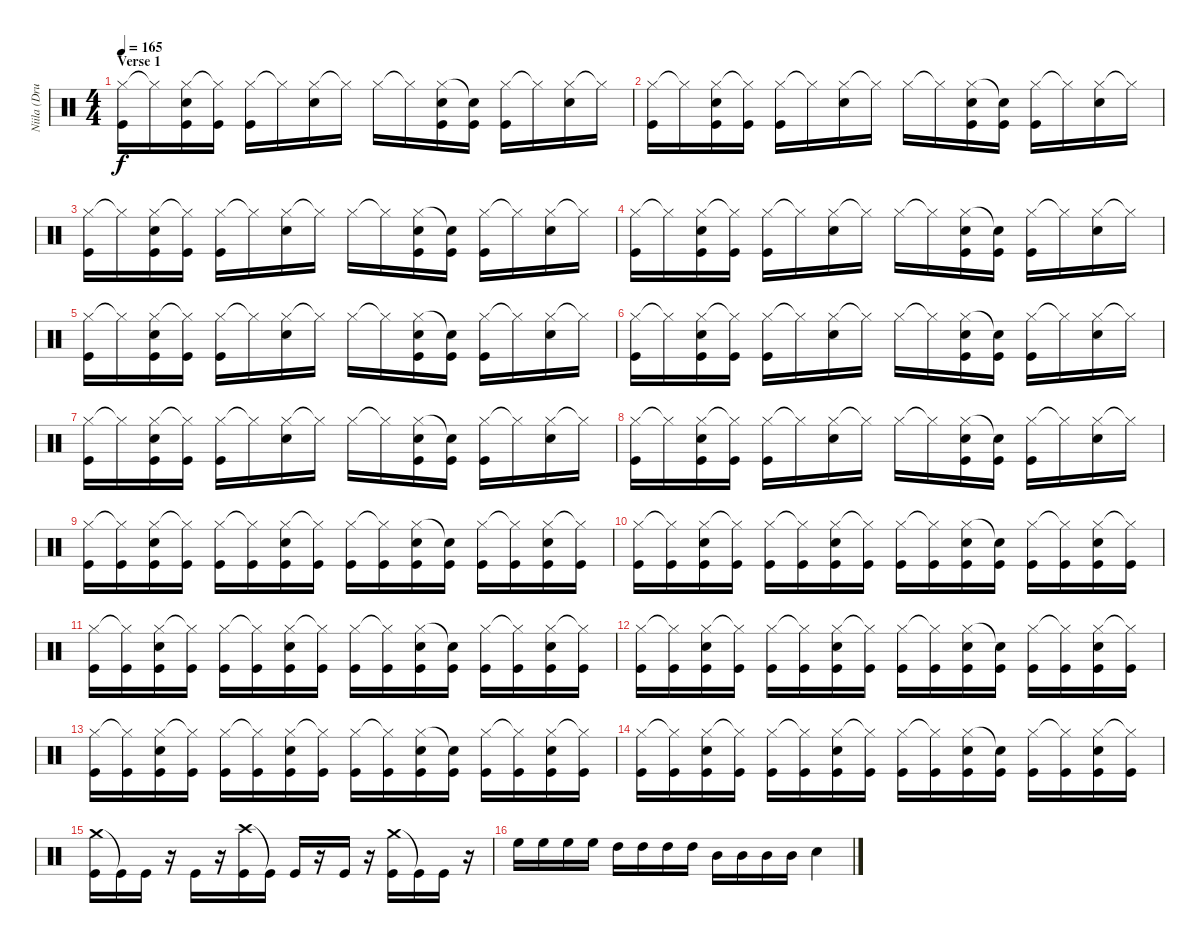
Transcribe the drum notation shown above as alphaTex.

\track ("Niila (Drums)" "Niila (Dru") {instrument percussion}
\staff {score}
\articulation defaults
\ts (4 4)
\section ("" "Verse 1")
\tempo 165
\clef neutral
\ks c
("Hi-Hat (closed)" "Kick (hit)").16{dy f} "Hi-Hat (closed)"{t}.16 ("Hi-Hat (closed)" "Snare (hit) 2" "Kick (hit)").16 ("Hi-Hat (closed)"{t} "Kick (hit)").16 ("Hi-Hat (closed)" "Kick (hit)").16 "Hi-Hat (closed)"{t}.16 ("Hi-Hat (closed)" "Snare (hit) 2").16 "Hi-Hat (closed)"{t}.16 "Hi-Hat (closed)".16 "Hi-Hat (closed)"{t}.16 ("Hi-Hat (closed)" "Snare (hit) 2" "Kick (hit)").16 ("Snare (hit)"{t} "Kick (hit)").16 ("Hi-Hat (closed)" "Kick (hit)").16 "Hi-Hat (closed)"{t}.16 ("Hi-Hat (closed)" "Snare (hit) 2").16 "Hi-Hat (closed)"{t}.16 |
("Hi-Hat (closed)" "Kick (hit)").16 "Hi-Hat (closed)"{t}.16 ("Hi-Hat (closed)" "Snare (hit) 2" "Kick (hit)").16 ("Hi-Hat (closed)"{t} "Kick (hit)").16 ("Hi-Hat (closed)" "Kick (hit)").16 "Hi-Hat (closed)"{t}.16 ("Hi-Hat (closed)" "Snare (hit) 2").16 "Hi-Hat (closed)"{t}.16 "Hi-Hat (closed)".16 "Hi-Hat (closed)"{t}.16 ("Hi-Hat (closed)" "Snare (hit) 2" "Kick (hit)").16 ("Snare (hit)"{t} "Kick (hit)").16 ("Hi-Hat (closed)" "Kick (hit)").16 "Hi-Hat (closed)"{t}.16 ("Hi-Hat (closed)" "Snare (hit) 2").16 "Hi-Hat (closed)"{t}.16 |
("Hi-Hat (closed)" "Kick (hit)").16 "Hi-Hat (closed)"{t}.16 ("Hi-Hat (closed)" "Snare (hit) 2" "Kick (hit)").16 ("Hi-Hat (closed)"{t} "Kick (hit)").16 ("Hi-Hat (closed)" "Kick (hit)").16 "Hi-Hat (closed)"{t}.16 ("Hi-Hat (closed)" "Snare (hit) 2").16 "Hi-Hat (closed)"{t}.16 "Hi-Hat (closed)".16 "Hi-Hat (closed)"{t}.16 ("Hi-Hat (closed)" "Snare (hit) 2" "Kick (hit)").16 ("Snare (hit)"{t} "Kick (hit)").16 ("Hi-Hat (closed)" "Kick (hit)").16 "Hi-Hat (closed)"{t}.16 ("Hi-Hat (closed)" "Snare (hit) 2").16 "Hi-Hat (closed)"{t}.16 |
("Hi-Hat (closed)" "Kick (hit)").16 "Hi-Hat (closed)"{t}.16 ("Hi-Hat (closed)" "Snare (hit) 2" "Kick (hit)").16 ("Hi-Hat (closed)"{t} "Kick (hit)").16 ("Hi-Hat (closed)" "Kick (hit)").16 "Hi-Hat (closed)"{t}.16 ("Hi-Hat (closed)" "Snare (hit) 2").16 "Hi-Hat (closed)"{t}.16 "Hi-Hat (closed)".16 "Hi-Hat (closed)"{t}.16 ("Hi-Hat (closed)" "Snare (hit) 2" "Kick (hit)").16 ("Snare (hit)"{t} "Kick (hit)").16 ("Hi-Hat (closed)" "Kick (hit)").16 "Hi-Hat (closed)"{t}.16 ("Hi-Hat (closed)" "Snare (hit) 2").16 "Hi-Hat (closed)"{t}.16 |
("Hi-Hat (closed)" "Kick (hit)").16 "Hi-Hat (closed)"{t}.16 ("Hi-Hat (closed)" "Snare (hit) 2" "Kick (hit)").16 ("Hi-Hat (closed)"{t} "Kick (hit)").16 ("Hi-Hat (closed)" "Kick (hit)").16 "Hi-Hat (closed)"{t}.16 ("Hi-Hat (closed)" "Snare (hit) 2").16 "Hi-Hat (closed)"{t}.16 "Hi-Hat (closed)".16 "Hi-Hat (closed)"{t}.16 ("Hi-Hat (closed)" "Snare (hit) 2" "Kick (hit)").16 ("Snare (hit)"{t} "Kick (hit)").16 ("Hi-Hat (closed)" "Kick (hit)").16 "Hi-Hat (closed)"{t}.16 ("Hi-Hat (closed)" "Snare (hit) 2").16 "Hi-Hat (closed)"{t}.16 |
("Hi-Hat (closed)" "Kick (hit)").16 "Hi-Hat (closed)"{t}.16 ("Hi-Hat (closed)" "Snare (hit) 2" "Kick (hit)").16 ("Hi-Hat (closed)"{t} "Kick (hit)").16 ("Hi-Hat (closed)" "Kick (hit)").16 "Hi-Hat (closed)"{t}.16 ("Hi-Hat (closed)" "Snare (hit) 2").16 "Hi-Hat (closed)"{t}.16 "Hi-Hat (closed)".16 "Hi-Hat (closed)"{t}.16 ("Hi-Hat (closed)" "Snare (hit) 2" "Kick (hit)").16 ("Snare (hit)"{t} "Kick (hit)").16 ("Hi-Hat (closed)" "Kick (hit)").16 "Hi-Hat (closed)"{t}.16 ("Hi-Hat (closed)" "Snare (hit) 2").16 "Hi-Hat (closed)"{t}.16 |
("Hi-Hat (closed)" "Kick (hit)").16 "Hi-Hat (closed)"{t}.16 ("Hi-Hat (closed)" "Snare (hit) 2" "Kick (hit)").16 ("Hi-Hat (closed)"{t} "Kick (hit)").16 ("Hi-Hat (closed)" "Kick (hit)").16 "Hi-Hat (closed)"{t}.16 ("Hi-Hat (closed)" "Snare (hit) 2").16 "Hi-Hat (closed)"{t}.16 "Hi-Hat (closed)".16 "Hi-Hat (closed)"{t}.16 ("Hi-Hat (closed)" "Snare (hit) 2" "Kick (hit)").16 ("Snare (hit)"{t} "Kick (hit)").16 ("Hi-Hat (closed)" "Kick (hit)").16 "Hi-Hat (closed)"{t}.16 ("Hi-Hat (closed)" "Snare (hit) 2").16 "Hi-Hat (closed)"{t}.16 |
("Hi-Hat (closed)" "Kick (hit)").16 "Hi-Hat (closed)"{t}.16 ("Hi-Hat (closed)" "Snare (hit) 2" "Kick (hit)").16 ("Hi-Hat (closed)"{t} "Kick (hit)").16 ("Hi-Hat (closed)" "Kick (hit)").16 "Hi-Hat (closed)"{t}.16 ("Hi-Hat (closed)" "Snare (hit) 2").16 "Hi-Hat (closed)"{t}.16 "Hi-Hat (closed)".16 "Hi-Hat (closed)"{t}.16 ("Hi-Hat (closed)" "Snare (hit) 2" "Kick (hit)").16 ("Snare (hit)"{t} "Kick (hit)").16 ("Hi-Hat (closed)" "Kick (hit)").16 "Hi-Hat (closed)"{t}.16 ("Hi-Hat (closed)" "Snare (hit) 2").16 "Hi-Hat (closed)"{t}.16 |
("Hi-Hat (closed)" "Kick (hit)").16 ("Hi-Hat (closed)"{t} "Kick (hit)").16 ("Hi-Hat (closed)" "Snare (hit) 2" "Kick (hit)").16 ("Hi-Hat (closed)"{t} "Kick (hit)").16 ("Hi-Hat (closed)" "Kick (hit)").16 ("Hi-Hat (closed)"{t} "Kick (hit)").16 ("Hi-Hat (closed)" "Snare (hit) 2" "Kick (hit)").16 ("Hi-Hat (closed)"{t} "Kick (hit)").16 ("Hi-Hat (closed)" "Kick (hit)").16 ("Hi-Hat (closed)"{t} "Kick (hit)").16 ("Hi-Hat (closed)" "Snare (hit) 2" "Kick (hit)").16 ("Snare (hit)"{t} "Kick (hit)").16 ("Hi-Hat (closed)" "Kick (hit)").16 ("Hi-Hat (closed)"{t} "Kick (hit)").16 ("Hi-Hat (closed)" "Snare (hit) 2" "Kick (hit)").16 ("Hi-Hat (closed)"{t} "Kick (hit)").16 |
("Hi-Hat (closed)" "Kick (hit)").16 ("Hi-Hat (closed)"{t} "Kick (hit)").16 ("Hi-Hat (closed)" "Snare (hit) 2" "Kick (hit)").16 ("Hi-Hat (closed)"{t} "Kick (hit)").16 ("Hi-Hat (closed)" "Kick (hit)").16 ("Hi-Hat (closed)"{t} "Kick (hit)").16 ("Hi-Hat (closed)" "Snare (hit) 2" "Kick (hit)").16 ("Hi-Hat (closed)"{t} "Kick (hit)").16 ("Hi-Hat (closed)" "Kick (hit)").16 ("Hi-Hat (closed)"{t} "Kick (hit)").16 ("Hi-Hat (closed)" "Snare (hit) 2" "Kick (hit)").16 ("Snare (hit)"{t} "Kick (hit)").16 ("Hi-Hat (closed)" "Kick (hit)").16 ("Hi-Hat (closed)"{t} "Kick (hit)").16 ("Hi-Hat (closed)" "Snare (hit) 2" "Kick (hit)").16 ("Hi-Hat (closed)"{t} "Kick (hit)").16 |
("Hi-Hat (closed)" "Kick (hit)").16 ("Hi-Hat (closed)"{t} "Kick (hit)").16 ("Hi-Hat (closed)" "Snare (hit) 2" "Kick (hit)").16 ("Hi-Hat (closed)"{t} "Kick (hit)").16 ("Hi-Hat (closed)" "Kick (hit)").16 ("Hi-Hat (closed)"{t} "Kick (hit)").16 ("Hi-Hat (closed)" "Snare (hit) 2" "Kick (hit)").16 ("Hi-Hat (closed)"{t} "Kick (hit)").16 ("Hi-Hat (closed)" "Kick (hit)").16 ("Hi-Hat (closed)"{t} "Kick (hit)").16 ("Hi-Hat (closed)" "Snare (hit) 2" "Kick (hit)").16 ("Snare (hit)"{t} "Kick (hit)").16 ("Hi-Hat (closed)" "Kick (hit)").16 ("Hi-Hat (closed)"{t} "Kick (hit)").16 ("Hi-Hat (closed)" "Snare (hit) 2" "Kick (hit)").16 ("Hi-Hat (closed)"{t} "Kick (hit)").16 |
("Hi-Hat (closed)" "Kick (hit)").16 ("Hi-Hat (closed)"{t} "Kick (hit)").16 ("Hi-Hat (closed)" "Snare (hit) 2" "Kick (hit)").16 ("Hi-Hat (closed)"{t} "Kick (hit)").16 ("Hi-Hat (closed)" "Kick (hit)").16 ("Hi-Hat (closed)"{t} "Kick (hit)").16 ("Hi-Hat (closed)" "Snare (hit) 2" "Kick (hit)").16 ("Hi-Hat (closed)"{t} "Kick (hit)").16 ("Hi-Hat (closed)" "Kick (hit)").16 ("Hi-Hat (closed)"{t} "Kick (hit)").16 ("Hi-Hat (closed)" "Snare (hit) 2" "Kick (hit)").16 ("Snare (hit)"{t} "Kick (hit)").16 ("Hi-Hat (closed)" "Kick (hit)").16 ("Hi-Hat (closed)"{t} "Kick (hit)").16 ("Hi-Hat (closed)" "Snare (hit) 2" "Kick (hit)").16 ("Hi-Hat (closed)"{t} "Kick (hit)").16 |
("Hi-Hat (closed)" "Kick (hit)").16 ("Hi-Hat (closed)"{t} "Kick (hit)").16 ("Hi-Hat (closed)" "Snare (hit) 2" "Kick (hit)").16 ("Hi-Hat (closed)"{t} "Kick (hit)").16 ("Hi-Hat (closed)" "Kick (hit)").16 ("Hi-Hat (closed)"{t} "Kick (hit)").16 ("Hi-Hat (closed)" "Snare (hit) 2" "Kick (hit)").16 ("Hi-Hat (closed)"{t} "Kick (hit)").16 ("Hi-Hat (closed)" "Kick (hit)").16 ("Hi-Hat (closed)"{t} "Kick (hit)").16 ("Hi-Hat (closed)" "Snare (hit) 2" "Kick (hit)").16 ("Snare (hit)"{t} "Kick (hit)").16 ("Hi-Hat (closed)" "Kick (hit)").16 ("Hi-Hat (closed)"{t} "Kick (hit)").16 ("Hi-Hat (closed)" "Snare (hit) 2" "Kick (hit)").16 ("Hi-Hat (closed)"{t} "Kick (hit)").16 |
("Hi-Hat (closed)" "Kick (hit)").16 ("Hi-Hat (closed)"{t} "Kick (hit)").16 ("Hi-Hat (closed)" "Snare (hit) 2" "Kick (hit)").16 ("Hi-Hat (closed)"{t} "Kick (hit)").16 ("Hi-Hat (closed)" "Kick (hit)").16 ("Hi-Hat (closed)"{t} "Kick (hit)").16 ("Hi-Hat (closed)" "Snare (hit) 2" "Kick (hit)").16 ("Hi-Hat (closed)"{t} "Kick (hit)").16 ("Hi-Hat (closed)" "Kick (hit)").16 ("Hi-Hat (closed)"{t} "Kick (hit)").16 ("Hi-Hat (closed)" "Snare (hit) 2" "Kick (hit)").16 ("Snare (hit)"{t} "Kick (hit)").16 ("Hi-Hat (closed)" "Kick (hit)").16 ("Hi-Hat (closed)"{t} "Kick (hit)").16 ("Hi-Hat (closed)" "Snare (hit) 2" "Kick (hit)").16 ("Hi-Hat (closed)"{t} "Kick (hit)").16 |
("Crash medium (hit)" "Kick (hit)").16 "Kick (hit)"{t}.16 "Kick (hit)".16 r.16 "Kick (hit)".16 r.16 ("Crash high (hit)" "Kick (hit)").16 "Kick (hit)"{t}.16 "Kick (hit)".16 r.16 "Kick (hit)".16 r.16 ("Crash medium (hit)" "Kick (hit)").16 "Kick (hit)"{t}.16 "Kick (hit)".16 r.16 |
"High Floor Tom (hit)".16 "High Floor Tom (hit)".16 "High Floor Tom (hit)".16 "High Floor Tom (hit)".16 "High Tom (hit)".16 "High Tom (hit)".16 "High Tom (hit)".16 "High Tom (hit)".16 "Mid Tom (hit)".16 "Mid Tom (hit)".16 "Mid Tom (hit)".16 "Mid Tom (hit)".16 "Snare (hit) 2".4
